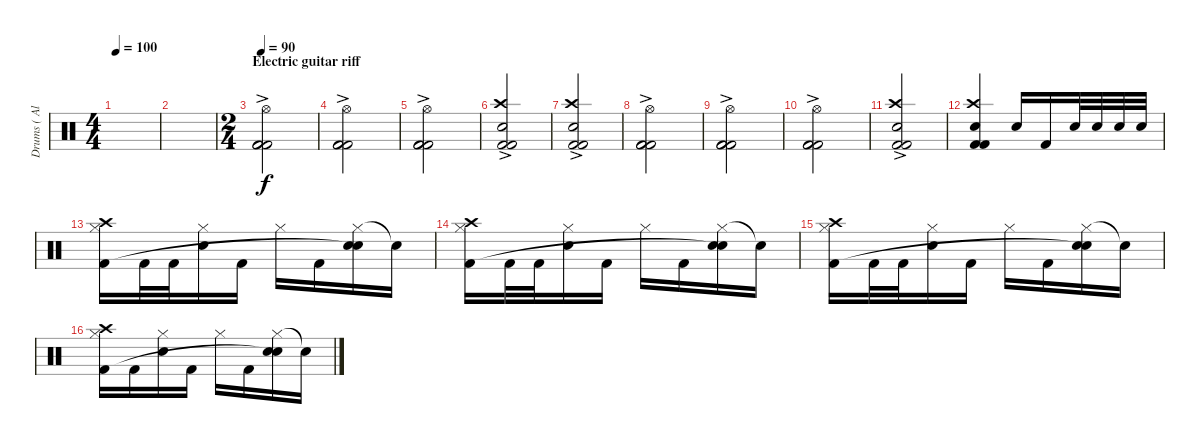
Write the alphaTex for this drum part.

\track ("Drums ( Alex Holzwarth)" "Drums ( Al") {instrument percussion}
\staff {score}
\articulation defaults
\ts (4 4)
\tempo 100
\clef neutral
\ks c
|
|
\ts (2 4)
\section ("" "Electric guitar riff")
\tempo 90
("Hi-Hat (open)"{ac} "Kick (hit) 2"{ac} "Kick (hit) 2"{ac} "Kick (hit) 2"{ac}).2 |
("Hi-Hat (open)"{ac} "Kick (hit) 2" "Kick (hit) 2" "Kick (hit) 2").2 |
("Hi-Hat (open)"{ac} "Kick (hit) 2" "Kick (hit) 2" "Kick (hit) 2").2 |
("Crash high (hit)"{ac} "Snare (hit) 2" "Kick (hit) 2" "Kick (hit) 2").2 |
("Crash high (hit)"{ac} "Snare (hit) 2" "Kick (hit) 2" "Kick (hit) 2").2 |
("Hi-Hat (open)"{ac} "Kick (hit) 2" "Kick (hit) 2" "Kick (hit) 2").2 |
("Hi-Hat (open)"{ac} "Kick (hit) 2" "Kick (hit) 2" "Kick (hit) 2"{ac}).2 |
("Hi-Hat (open)"{ac} "Kick (hit) 2" "Kick (hit) 2" "Kick (hit) 2"{ac}).2 |
("Crash high (hit)"{ac} "Snare (hit) 2" "Kick (hit) 2" "Kick (hit) 2"{ac}).2 |
("Crash high (hit)" "Snare (hit) 2" "Kick (hit) 2" "Kick (hit) 2").4{dy f} "Electric Snare (hit)".16 "Kick (hit) 2".16 "Electric Snare (hit)".32 "Electric Snare (hit)".32 "Electric Snare (hit)".32 "Electric Snare (hit)".32 |
("Crash high (hit)" "Hi-Hat (closed)" "Kick (hit) 2").16 "Kick (hit) 2".32 "Kick (hit) 2".32 ("Hi-Hat (closed)" "Electric Snare (hit)").16 "Kick (hit) 2".16 "Hi-Hat (closed)".16 "Kick (hit) 2".16 ("Hi-Hat (closed)" "Electric Snare (hit)" "Snare (hit)"{t}).16 "Snare (hit)"{t}.16 |
("Crash high (hit)" "Hi-Hat (closed)" "Kick (hit) 2").16 "Kick (hit) 2".32 "Kick (hit) 2".32 ("Hi-Hat (closed)" "Electric Snare (hit)").16 "Kick (hit) 2".16 "Hi-Hat (closed)".16 "Kick (hit) 2".16 ("Hi-Hat (closed)" "Electric Snare (hit)" "Snare (hit)"{t}).16 "Snare (hit)"{t}.16 |
("Crash high (hit)" "Hi-Hat (closed)" "Kick (hit) 2").16 "Kick (hit) 2".32 "Kick (hit) 2".32 ("Hi-Hat (closed)" "Electric Snare (hit)").16 "Kick (hit) 2".16 "Hi-Hat (closed)".16 "Kick (hit) 2".16 ("Hi-Hat (closed)" "Electric Snare (hit)" "Snare (hit)"{t}).16 "Snare (hit)"{t}.16 |
("Crash high (hit)" "Hi-Hat (closed)" "Kick (hit) 2").16 "Kick (hit) 2".16 ("Hi-Hat (closed)" "Electric Snare (hit)").16 "Kick (hit) 2".16 "Hi-Hat (closed)".16 "Kick (hit) 2".16 ("Hi-Hat (closed)" "Electric Snare (hit)" "Snare (hit)"{t}).16 "Snare (hit)"{t}.16
